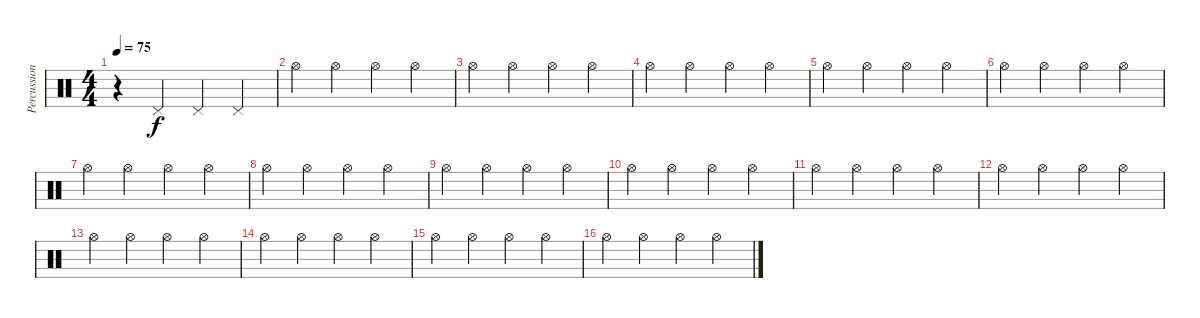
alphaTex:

\track ("Percussion" "Percussion") {instrument percussion}
\staff {score}
\articulation defaults
\ts (4 4)
\tempo 75
\clef neutral
\ks c
r.4{dy f} "Pedal Hi-Hat (hit)".4 "Pedal Hi-Hat (hit)".4 "Pedal Hi-Hat (hit)".4 |
"Hi-Hat (open)".4 "Hi-Hat (open)".4 "Hi-Hat (open)".4 "Hi-Hat (open)".4 |
"Hi-Hat (open)".4 "Hi-Hat (open)".4 "Hi-Hat (open)".4 "Hi-Hat (open)".4 |
"Hi-Hat (open)".4 "Hi-Hat (open)".4 "Hi-Hat (open)".4 "Hi-Hat (open)".4 |
"Hi-Hat (open)".4 "Hi-Hat (open)".4 "Hi-Hat (open)".4 "Hi-Hat (open)".4 |
"Hi-Hat (open)".4 "Hi-Hat (open)".4 "Hi-Hat (open)".4 "Hi-Hat (open)".4 |
"Hi-Hat (open)".4 "Hi-Hat (open)".4 "Hi-Hat (open)".4 "Hi-Hat (open)".4 |
"Hi-Hat (open)".4 "Hi-Hat (open)".4 "Hi-Hat (open)".4 "Hi-Hat (open)".4 |
"Hi-Hat (open)".4 "Hi-Hat (open)".4 "Hi-Hat (open)".4 "Hi-Hat (open)".4 |
"Hi-Hat (open)".4 "Hi-Hat (open)".4 "Hi-Hat (open)".4 "Hi-Hat (open)".4 |
"Hi-Hat (open)".4 "Hi-Hat (open)".4 "Hi-Hat (open)".4 "Hi-Hat (open)".4 |
"Hi-Hat (open)".4 "Hi-Hat (open)".4 "Hi-Hat (open)".4 "Hi-Hat (open)".4 |
"Hi-Hat (open)".4 "Hi-Hat (open)".4 "Hi-Hat (open)".4 "Hi-Hat (open)".4 |
"Hi-Hat (open)".4 "Hi-Hat (open)".4 "Hi-Hat (open)".4 "Hi-Hat (open)".4 |
"Hi-Hat (open)".4 "Hi-Hat (open)".4 "Hi-Hat (open)".4 "Hi-Hat (open)".4 |
"Hi-Hat (open)".4 "Hi-Hat (open)".4 "Hi-Hat (open)".4 "Hi-Hat (open)".4
